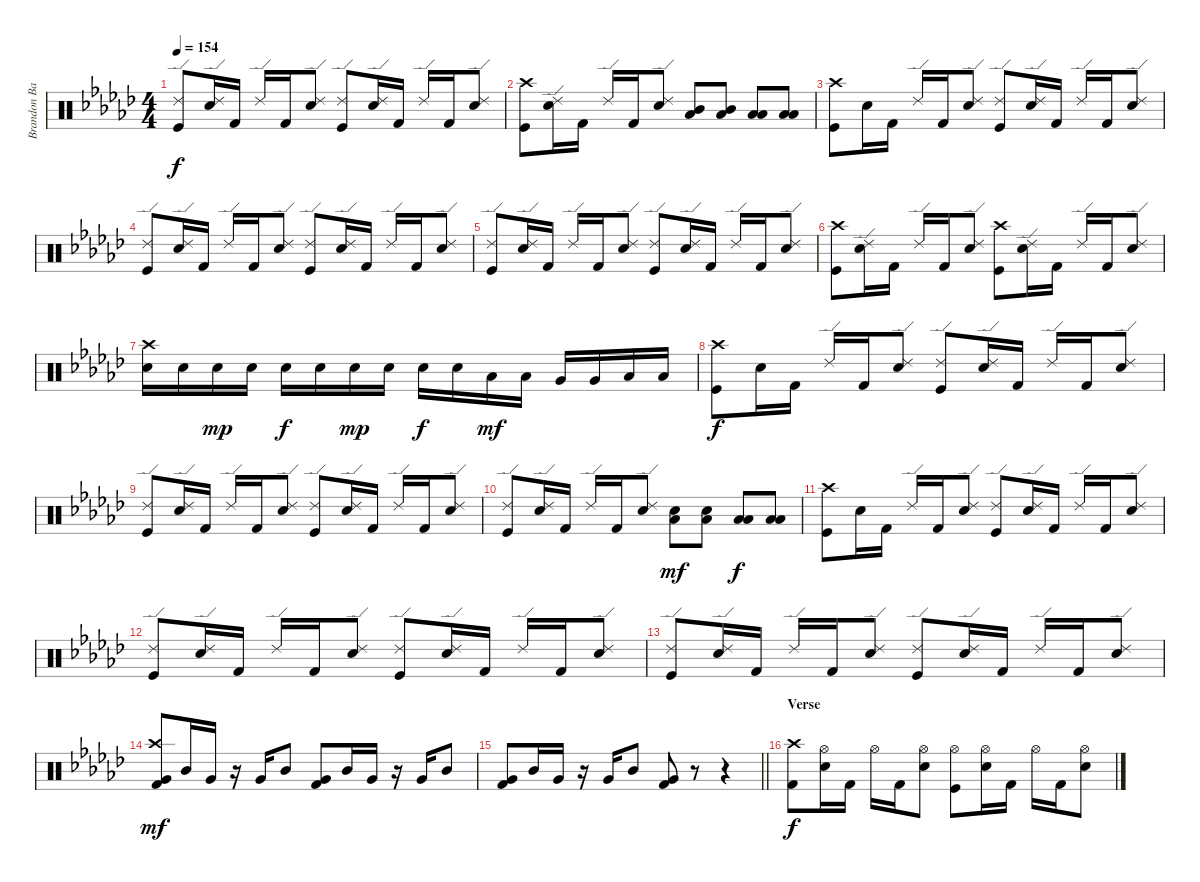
\track ("Brandon Barnes - Drums" "Brandon Ba") {instrument percussion}
\staff {score}
\articulation defaults
\ts (4 4)
\tempo 154
\clef neutral
\ks gb
("Kick (hit)" "Ride (edge) 2").8{dy f} ("Snare (hit) 2" "Ride (edge) 2").16 "Kick (hit) 2".16 "Ride (edge) 2".16 "Kick (hit) 2".16 ("Snare (hit) 2" "Ride (edge) 2").8 ("Kick (hit)" "Ride (edge) 2").8 ("Snare (hit) 2" "Ride (edge) 2").16 "Kick (hit) 2".16 "Ride (edge) 2".16 "Kick (hit) 2".16 ("Snare (hit) 2" "Ride (edge) 2").8 |
("Kick (hit)" "Crash high (hit)").8 ("Snare (hit) 2" "Ride (edge) 2").16 "Kick (hit) 2".16 "Ride (edge) 2".16 "Kick (hit) 2".16 ("Snare (hit) 2" "Ride (edge) 2").8 ("Mid Tom (hit)" "Low Floor Tom (hit)").8 ("Mid Tom (hit)" "Low Floor Tom (hit)").8 ("Low Tom (hit)" "Low Floor Tom (hit)").8 ("Low Tom (hit)" "Low Floor Tom (hit)").8 |
("Kick (hit)" "Crash high (hit)").8 "Snare (hit) 2".16 "Kick (hit) 2".16 "Ride (edge) 2".16 "Kick (hit) 2".16 ("Snare (hit) 2" "Ride (edge) 2").8 ("Kick (hit)" "Ride (edge) 2").8 ("Snare (hit) 2" "Ride (edge) 2").16 "Kick (hit) 2".16 "Ride (edge) 2".16 "Kick (hit) 2".16 ("Snare (hit) 2" "Ride (edge) 2").8 |
("Kick (hit)" "Ride (edge) 2").8 ("Snare (hit) 2" "Ride (edge) 2").16 "Kick (hit) 2".16 "Ride (edge) 2".16 "Kick (hit) 2".16 ("Snare (hit) 2" "Ride (edge) 2").8 ("Kick (hit)" "Ride (edge) 2").8 ("Snare (hit) 2" "Ride (edge) 2").16 "Kick (hit) 2".16 "Ride (edge) 2".16 "Kick (hit) 2".16 ("Snare (hit) 2" "Ride (edge) 2").8 |
("Kick (hit)" "Ride (edge) 2").8 ("Snare (hit) 2" "Ride (edge) 2").16 "Kick (hit) 2".16 "Ride (edge) 2".16 "Kick (hit) 2".16 ("Snare (hit) 2" "Ride (edge) 2").8 ("Kick (hit)" "Ride (edge) 2").8 ("Snare (hit) 2" "Ride (edge) 2").16 "Kick (hit) 2".16 "Ride (edge) 2".16 "Kick (hit) 2".16 ("Snare (hit) 2" "Ride (edge) 2").8 |
("Kick (hit)" "Crash high (hit)").8 ("Snare (hit) 2" "Ride (edge) 2").16 "Kick (hit) 2".16 "Ride (edge) 2".16 "Kick (hit) 2".16 ("Snare (hit) 2" "Ride (edge) 2").8 ("Kick (hit)" "Crash high (hit)").8 ("Snare (hit) 2" "Ride (edge) 2").16 "Kick (hit) 2".16 "Ride (edge) 2".16 "Kick (hit) 2".16 ("Snare (hit) 2" "Ride (edge) 2").8 |
("Crash high (hit)" "Snare (hit) 2").16 "Snare (hit) 2".16 "Snare (hit) 2".16{dy mp} "Snare (hit) 2".16 "Snare (hit) 2".16{dy f} "Snare (hit) 2".16 "Snare (hit) 2".16{dy mp} "Snare (hit) 2".16 "Snare (hit) 2".16{dy f} "Snare (hit) 2".16 "Low Tom (hit)".16{dy mf} "Low Tom (hit)".16 "Very Low Tom (hit)".16 "Very Low Tom (hit)".16 "Low Floor Tom (hit)".16 "Low Floor Tom (hit)".16 |
("Kick (hit)" "Crash high (hit)").8{dy f} "Snare (hit) 2".16 "Kick (hit) 2".16 "Ride (edge) 2".16 "Kick (hit) 2".16 ("Snare (hit) 2" "Ride (edge) 2").8 ("Kick (hit)" "Ride (edge) 2").8 ("Snare (hit) 2" "Ride (edge) 2").16 "Kick (hit) 2".16 "Ride (edge) 2".16 "Kick (hit) 2".16 ("Snare (hit) 2" "Ride (edge) 2").8 |
("Kick (hit)" "Ride (edge) 2").8 ("Snare (hit) 2" "Ride (edge) 2").16 "Kick (hit) 2".16 "Ride (edge) 2".16 "Kick (hit) 2".16 ("Snare (hit) 2" "Ride (edge) 2").8 ("Kick (hit)" "Ride (edge) 2").8 ("Snare (hit) 2" "Ride (edge) 2").16 "Kick (hit) 2".16 "Ride (edge) 2".16 "Kick (hit) 2".16 ("Snare (hit) 2" "Ride (edge) 2").8 |
("Kick (hit)" "Ride (edge) 2").8 ("Snare (hit) 2" "Ride (edge) 2").16 "Kick (hit) 2".16 "Ride (edge) 2".16 "Kick (hit) 2".16 ("Snare (hit) 2" "Ride (edge) 2").8 ("Snare (hit) 2" "Low Floor Tom (hit)").8{dy mf} ("Snare (hit) 2" "Low Floor Tom (hit)").8 ("Low Tom (hit)" "Low Floor Tom (hit)").8{dy f} ("Low Tom (hit)" "Low Floor Tom (hit)").8 |
("Kick (hit)" "Crash high (hit)").8 "Snare (hit) 2".16 "Kick (hit) 2".16 "Ride (edge) 2".16 "Kick (hit) 2".16 ("Snare (hit) 2" "Ride (edge) 2").8 ("Kick (hit)" "Ride (edge) 2").8 ("Snare (hit) 2" "Ride (edge) 2").16 "Kick (hit) 2".16 "Ride (edge) 2".16 "Kick (hit) 2".16 ("Snare (hit) 2" "Ride (edge) 2").8 |
("Kick (hit)" "Ride (edge) 2").8 ("Snare (hit) 2" "Ride (edge) 2").16 "Kick (hit) 2".16 "Ride (edge) 2".16 "Kick (hit) 2".16 ("Snare (hit) 2" "Ride (edge) 2").8 ("Kick (hit)" "Ride (edge) 2").8 ("Snare (hit) 2" "Ride (edge) 2").16 "Kick (hit) 2".16 "Ride (edge) 2".16 "Kick (hit) 2".16 ("Snare (hit) 2" "Ride (edge) 2").8 |
("Kick (hit)" "Ride (edge) 2").8 ("Snare (hit) 2" "Ride (edge) 2").16 "Kick (hit) 2".16 "Ride (edge) 2".16 "Kick (hit) 2".16 ("Snare (hit) 2" "Ride (edge) 2").8 ("Kick (hit)" "Ride (edge) 2").8 ("Snare (hit) 2" "Ride (edge) 2").16 "Kick (hit) 2".16 "Ride (edge) 2".16 "Kick (hit) 2".16 ("Snare (hit) 2" "Ride (edge) 2").8 |
("Kick (hit) 2" "Very Low Tom (hit)" "Crash high (hit)").8{dy mf} "Mid Tom (hit)".16 "Very Low Tom (hit)".16 r.16 "Very Low Tom (hit)".16 "Mid Tom (hit)".8 ("Kick (hit) 2" "Very Low Tom (hit)").8 "Mid Tom (hit)".16 "Very Low Tom (hit)".16 r.16 "Very Low Tom (hit)".16 "Mid Tom (hit)".8 |
\barLineRight lightlight
("Kick (hit) 2" "Very Low Tom (hit)").8 "Mid Tom (hit)".16 "Very Low Tom (hit)".16 r.16 "Very Low Tom (hit)".16 "Mid Tom (hit)".8 ("Kick (hit) 2" "Very Low Tom (hit)").8 r.8 r.4 |
\section ("" "Verse")
("Crash high (hit)" "Kick (hit) 2").8{dy f} ("Snare (hit) 2" "Hi-Hat (open)").16 "Kick (hit) 2".16 "Hi-Hat (open)".16 "Kick (hit) 2".16 ("Snare (hit) 2" "Hi-Hat (open)").8 ("Kick (hit)" "Hi-Hat (open)").8 ("Snare (hit) 2" "Hi-Hat (open)").16 "Kick (hit) 2".16 "Hi-Hat (open)".16 "Kick (hit) 2".16 ("Snare (hit) 2" "Hi-Hat (open)").8
